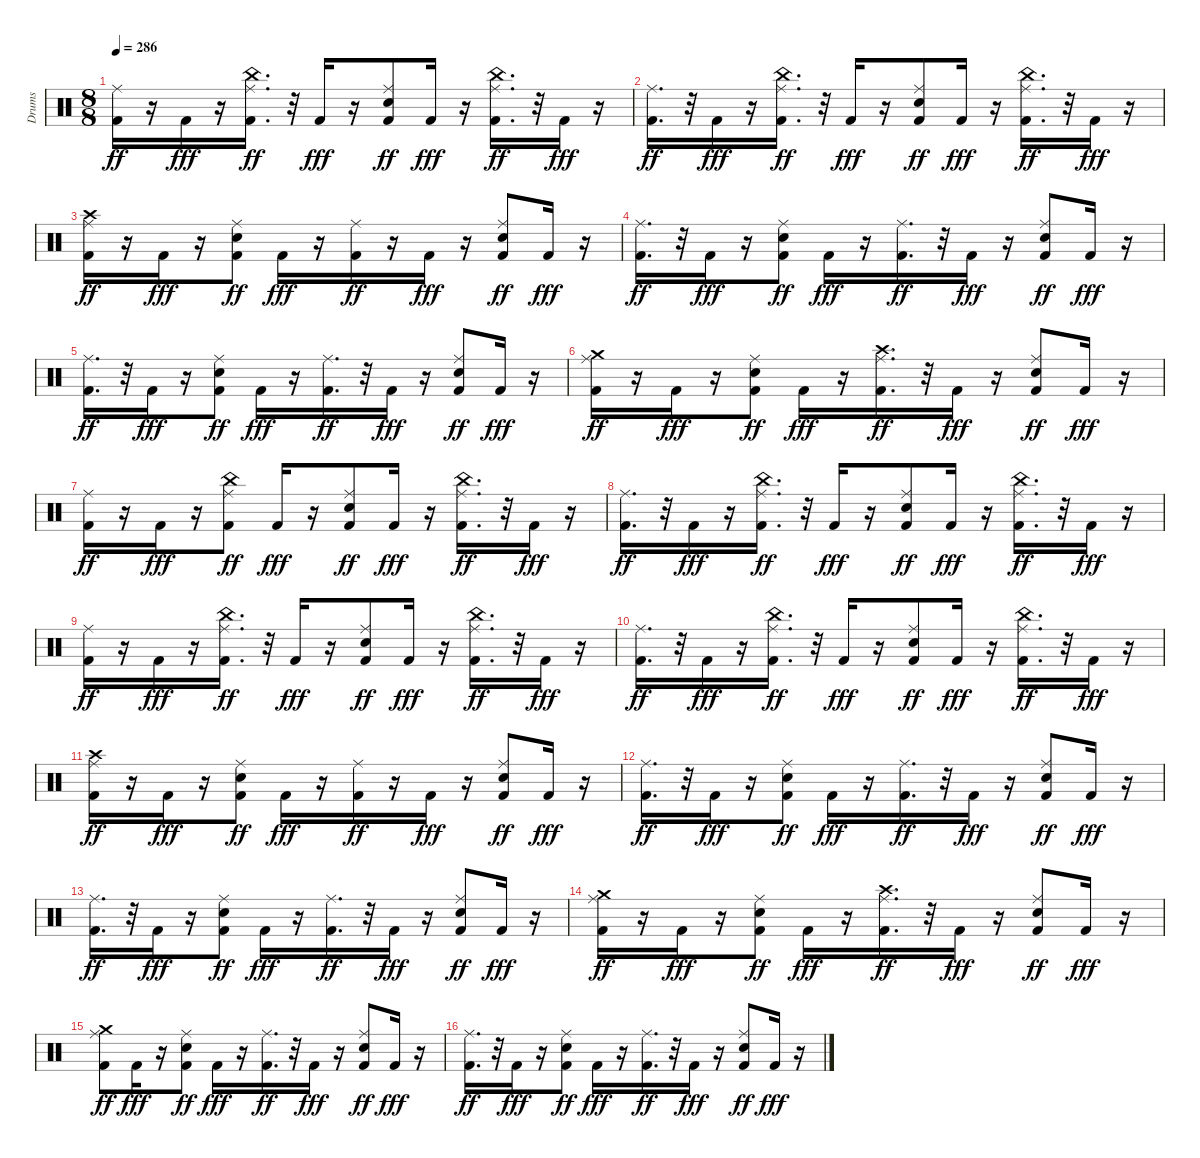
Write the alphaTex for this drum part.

\track ("Drums" "Drums") {instrument percussion}
\staff {score}
\articulation defaults
\ts (8 8)
\tempo 286
\clef neutral
\ks c
("Kick (hit) 2" "Ride (middle)").16{dy ff} r.16 "Kick (hit) 2".16{dy fff} r.16 ("Kick (hit) 2" "Ride (middle)" "China (hit)").16{d dy ff} r.32 "Kick (hit) 2".16{dy fff} r.16 ("Kick (hit) 2" "Snare (hit) 2" "Ride (middle)").8{dy ff} "Kick (hit) 2".16{dy fff} r.16 ("Kick (hit) 2" "Ride (middle)" "China (hit)").16{d dy ff} r.32 "Kick (hit) 2".16{dy fff} r.16 |
("Kick (hit) 2" "Ride (middle)").16{d dy ff} r.32 "Kick (hit) 2".16{dy fff} r.16 ("Kick (hit) 2" "Ride (middle)" "China (hit)").16{d dy ff} r.32 "Kick (hit) 2".16{dy fff} r.16 ("Kick (hit) 2" "Snare (hit) 2" "Ride (middle)").8{dy ff} "Kick (hit) 2".16{dy fff} r.16 ("Kick (hit) 2" "Ride (middle)" "China (hit)").16{d dy ff} r.32 "Kick (hit) 2".16{dy fff} r.16 |
("Kick (hit) 2" "Ride (middle)" "Crash high (hit)").16{dy ff} r.16 "Kick (hit) 2".16{dy fff} r.16 ("Kick (hit) 2" "Snare (hit) 2" "Ride (middle)").8{dy ff} "Kick (hit) 2".16{dy fff} r.16 ("Kick (hit) 2" "Ride (middle)").16{dy ff} r.16 "Kick (hit) 2".16{dy fff} r.16 ("Kick (hit) 2" "Snare (hit) 2" "Ride (middle)").8{dy ff} "Kick (hit) 2".16{dy fff} r.16 |
("Kick (hit) 2" "Ride (middle)").16{d dy ff} r.32 "Kick (hit) 2".16{dy fff} r.16 ("Kick (hit) 2" "Snare (hit) 2" "Ride (middle)").8{dy ff} "Kick (hit) 2".16{dy fff} r.16 ("Kick (hit) 2" "Ride (middle)").16{d dy ff} r.32 "Kick (hit) 2".16{dy fff} r.16 ("Kick (hit) 2" "Snare (hit) 2" "Ride (middle)").8{dy ff} "Kick (hit) 2".16{dy fff} r.16 |
("Kick (hit) 2" "Ride (middle)").16{d dy ff} r.32 "Kick (hit) 2".16{dy fff} r.16 ("Kick (hit) 2" "Snare (hit) 2" "Ride (middle)").8{dy ff} "Kick (hit) 2".16{dy fff} r.16 ("Kick (hit) 2" "Ride (middle)").16{d dy ff} r.32 "Kick (hit) 2".16{dy fff} r.16 ("Kick (hit) 2" "Snare (hit) 2" "Ride (middle)").8{dy ff} "Kick (hit) 2".16{dy fff} r.16 |
("Kick (hit) 2" "Ride (middle)" "Crash medium (hit)").16{dy ff} r.16 "Kick (hit) 2".16{dy fff} r.16 ("Kick (hit) 2" "Snare (hit) 2" "Ride (middle)").8{dy ff} "Kick (hit) 2".16{dy fff} r.16 ("Kick (hit) 2" "Ride (middle)" "Crash high (hit)").16{d dy ff} r.32 "Kick (hit) 2".16{dy fff} r.16 ("Kick (hit) 2" "Snare (hit) 2" "Ride (middle)").8{dy ff} "Kick (hit) 2".16{dy fff} r.16 |
("Kick (hit) 2" "Ride (middle)").16{dy ff} r.16 "Kick (hit) 2".16{dy fff} r.16 ("Kick (hit) 2" "Ride (middle)" "China (hit)").8{dy ff} "Kick (hit) 2".16{dy fff} r.16 ("Kick (hit) 2" "Snare (hit) 2" "Ride (middle)").8{dy ff} "Kick (hit) 2".16{dy fff} r.16 ("Kick (hit) 2" "Ride (middle)" "China (hit)").16{d dy ff} r.32 "Kick (hit) 2".16{dy fff} r.16 |
("Kick (hit) 2" "Ride (middle)").16{d dy ff} r.32 "Kick (hit) 2".16{dy fff} r.16 ("Kick (hit) 2" "Ride (middle)" "China (hit)").16{d dy ff} r.32 "Kick (hit) 2".16{dy fff} r.16 ("Kick (hit) 2" "Snare (hit) 2" "Ride (middle)").8{dy ff} "Kick (hit) 2".16{dy fff} r.16 ("Kick (hit) 2" "Ride (middle)" "China (hit)").16{d dy ff} r.32 "Kick (hit) 2".16{dy fff} r.16 |
("Kick (hit) 2" "Ride (middle)").16{dy ff} r.16 "Kick (hit) 2".16{dy fff} r.16 ("Kick (hit) 2" "Ride (middle)" "China (hit)").16{d dy ff} r.32 "Kick (hit) 2".16{dy fff} r.16 ("Kick (hit) 2" "Snare (hit) 2" "Ride (middle)").8{dy ff} "Kick (hit) 2".16{dy fff} r.16 ("Kick (hit) 2" "Ride (middle)" "China (hit)").16{d dy ff} r.32 "Kick (hit) 2".16{dy fff} r.16 |
("Kick (hit) 2" "Ride (middle)").16{d dy ff} r.32 "Kick (hit) 2".16{dy fff} r.16 ("Kick (hit) 2" "Ride (middle)" "China (hit)").16{d dy ff} r.32 "Kick (hit) 2".16{dy fff} r.16 ("Kick (hit) 2" "Snare (hit) 2" "Ride (middle)").8{dy ff} "Kick (hit) 2".16{dy fff} r.16 ("Kick (hit) 2" "Ride (middle)" "China (hit)").16{d dy ff} r.32 "Kick (hit) 2".16{dy fff} r.16 |
("Kick (hit) 2" "Ride (middle)" "Crash high (hit)").16{dy ff} r.16 "Kick (hit) 2".16{dy fff} r.16 ("Kick (hit) 2" "Snare (hit) 2" "Ride (middle)").8{dy ff} "Kick (hit) 2".16{dy fff} r.16 ("Kick (hit) 2" "Ride (middle)").16{dy ff} r.16 "Kick (hit) 2".16{dy fff} r.16 ("Kick (hit) 2" "Snare (hit) 2" "Ride (middle)").8{dy ff} "Kick (hit) 2".16{dy fff} r.16 |
("Kick (hit) 2" "Ride (middle)").16{d dy ff} r.32 "Kick (hit) 2".16{dy fff} r.16 ("Kick (hit) 2" "Snare (hit) 2" "Ride (middle)").8{dy ff} "Kick (hit) 2".16{dy fff} r.16 ("Kick (hit) 2" "Ride (middle)").16{d dy ff} r.32 "Kick (hit) 2".16{dy fff} r.16 ("Kick (hit) 2" "Snare (hit) 2" "Ride (middle)").8{dy ff} "Kick (hit) 2".16{dy fff} r.16 |
("Kick (hit) 2" "Ride (middle)").16{d dy ff} r.32 "Kick (hit) 2".16{dy fff} r.16 ("Kick (hit) 2" "Snare (hit) 2" "Ride (middle)").8{dy ff} "Kick (hit) 2".16{dy fff} r.16 ("Kick (hit) 2" "Ride (middle)").16{d dy ff} r.32 "Kick (hit) 2".16{dy fff} r.16 ("Kick (hit) 2" "Snare (hit) 2" "Ride (middle)").8{dy ff} "Kick (hit) 2".16{dy fff} r.16 |
("Kick (hit) 2" "Ride (middle)" "Crash medium (hit)").16{dy ff} r.16 "Kick (hit) 2".16{dy fff} r.16 ("Kick (hit) 2" "Snare (hit) 2" "Ride (middle)").8{dy ff} "Kick (hit) 2".16{dy fff} r.16 ("Kick (hit) 2" "Ride (middle)" "Crash high (hit)").16{d dy ff} r.32 "Kick (hit) 2".16{dy fff} r.16 ("Kick (hit) 2" "Snare (hit) 2" "Ride (middle)").8{dy ff} "Kick (hit) 2".16{dy fff} r.16 |
("Kick (hit) 2" "Ride (middle)" "Crash medium (hit)").8{dy ff} "Kick (hit) 2".16{dy fff} r.16 ("Kick (hit) 2" "Snare (hit) 2" "Ride (middle)").8{dy ff} "Kick (hit) 2".16{dy fff} r.16 ("Kick (hit) 2" "Ride (middle)").16{d dy ff} r.32 "Kick (hit) 2".16{dy fff} r.16 ("Kick (hit) 2" "Snare (hit) 2" "Ride (middle)").8{dy ff} "Kick (hit) 2".16{dy fff} r.16 |
("Kick (hit) 2" "Ride (middle)").16{d dy ff} r.32 "Kick (hit) 2".16{dy fff} r.16 ("Kick (hit) 2" "Snare (hit) 2" "Ride (middle)").8{dy ff} "Kick (hit) 2".16{dy fff} r.16 ("Kick (hit) 2" "Ride (middle)").16{d dy ff} r.32 "Kick (hit) 2".16{dy fff} r.16 ("Kick (hit) 2" "Snare (hit) 2" "Ride (middle)").8{dy ff} "Kick (hit) 2".16{dy fff} r.16
